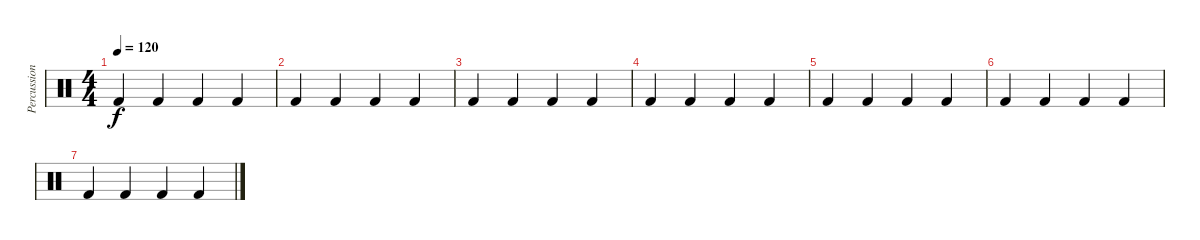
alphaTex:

\track ("Percussions" "Percussion") {instrument percussion}
\staff {score}
\articulation defaults
\ts (4 4)
\tempo 120
\clef neutral
\ks c "Kick (hit) 2".4{dy f} "Kick (hit) 2".4 "Kick (hit) 2".4 "Kick (hit) 2".4
|
"Kick (hit) 2".4 "Kick (hit) 2".4 "Kick (hit) 2".4 "Kick (hit) 2".4 |
"Kick (hit) 2".4 "Kick (hit) 2".4 "Kick (hit) 2".4 "Kick (hit) 2".4 |
"Kick (hit) 2".4 "Kick (hit) 2".4 "Kick (hit) 2".4 "Kick (hit) 2".4 |
"Kick (hit) 2".4 "Kick (hit) 2".4 "Kick (hit) 2".4 "Kick (hit) 2".4 |
"Kick (hit) 2".4 "Kick (hit) 2".4 "Kick (hit) 2".4 "Kick (hit) 2".4 |
"Kick (hit) 2".4 "Kick (hit) 2".4 "Kick (hit) 2".4 "Kick (hit) 2".4
